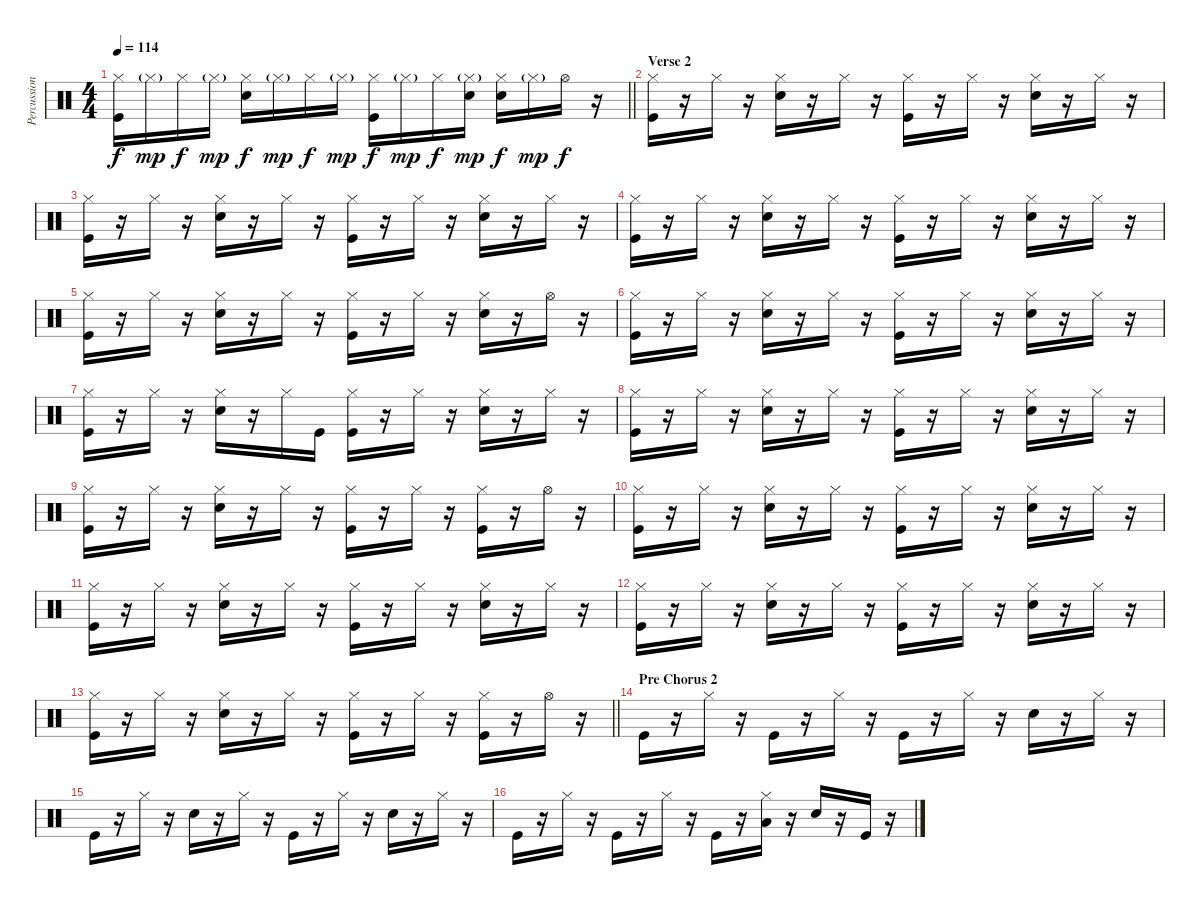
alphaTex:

\track ("Percussion" "Percussion") {instrument percussion bank 177}
\staff {score}
\articulation defaults
\ts (4 4)
\tempo 114
\clef neutral
\barLineRight lightlight
\ks c
("Hi-Hat (closed)" "Kick (hit)").16{dy f} "Hi-Hat (closed)"{g}.16{dy mp} "Hi-Hat (closed)".16{dy f} "Hi-Hat (closed)"{g}.16{dy mp} ("Hi-Hat (closed)" "Snare (hit) 2").16{dy f} "Hi-Hat (closed)"{g}.16{dy mp} "Hi-Hat (closed)".16{dy f} "Hi-Hat (closed)"{g}.16{dy mp} ("Hi-Hat (closed)" "Kick (hit)").16{dy f} "Hi-Hat (closed)"{g}.16{dy mp} "Hi-Hat (closed)".16{dy f} ("Hi-Hat (closed)"{g} "Snare (hit) 2").16{dy mp} ("Hi-Hat (closed)" "Snare (hit) 2").16{dy f} "Hi-Hat (closed)"{g}.16{dy mp} "Hi-Hat (open)".16{dy f} r.16 |
\section ("" "Verse 2")
("Hi-Hat (closed)" "Kick (hit)").16 r.16 "Hi-Hat (closed)".16 r.16 ("Hi-Hat (closed)" "Snare (hit) 2").16 r.16 "Hi-Hat (closed)".16 r.16 ("Hi-Hat (closed)" "Kick (hit)").16 r.16 "Hi-Hat (closed)".16 r.16 ("Hi-Hat (closed)" "Snare (hit) 2").16 r.16 "Hi-Hat (closed)".16 r.16 |
("Hi-Hat (closed)" "Kick (hit)").16 r.16 "Hi-Hat (closed)".16 r.16 ("Hi-Hat (closed)" "Snare (hit) 2").16 r.16 "Hi-Hat (closed)".16 r.16 ("Hi-Hat (closed)" "Kick (hit)").16 r.16 "Hi-Hat (closed)".16 r.16 ("Hi-Hat (closed)" "Snare (hit) 2").16 r.16 "Hi-Hat (closed)".16 r.16 |
("Hi-Hat (closed)" "Kick (hit)").16 r.16 "Hi-Hat (closed)".16 r.16 ("Hi-Hat (closed)" "Snare (hit) 2").16 r.16 "Hi-Hat (closed)".16 r.16 ("Hi-Hat (closed)" "Kick (hit)").16 r.16 "Hi-Hat (closed)".16 r.16 ("Hi-Hat (closed)" "Snare (hit) 2").16 r.16 "Hi-Hat (closed)".16 r.16 |
("Hi-Hat (closed)" "Kick (hit)").16 r.16 "Hi-Hat (closed)".16 r.16 ("Hi-Hat (closed)" "Snare (hit) 2").16 r.16 "Hi-Hat (closed)".16 r.16 ("Hi-Hat (closed)" "Kick (hit)").16 r.16 "Hi-Hat (closed)".16 r.16 ("Hi-Hat (closed)" "Snare (hit) 2").16 r.16 "Hi-Hat (open)".16 r.16 |
("Hi-Hat (closed)" "Kick (hit)").16 r.16 "Hi-Hat (closed)".16 r.16 ("Hi-Hat (closed)" "Snare (hit) 2").16 r.16 "Hi-Hat (closed)".16 r.16 ("Hi-Hat (closed)" "Kick (hit)").16 r.16 "Hi-Hat (closed)".16 r.16 ("Hi-Hat (closed)" "Snare (hit) 2").16 r.16 "Hi-Hat (closed)".16 r.16 |
("Hi-Hat (closed)" "Kick (hit)").16 r.16 "Hi-Hat (closed)".16 r.16 ("Hi-Hat (closed)" "Snare (hit) 2").16 r.16 "Hi-Hat (closed)".16 "Kick (hit)".16 ("Hi-Hat (closed)" "Kick (hit)").16 r.16 "Hi-Hat (closed)".16 r.16 ("Hi-Hat (closed)" "Snare (hit) 2").16 r.16 "Hi-Hat (closed)".16 r.16 |
("Hi-Hat (closed)" "Kick (hit)").16 r.16 "Hi-Hat (closed)".16 r.16 ("Hi-Hat (closed)" "Snare (hit) 2").16 r.16 "Hi-Hat (closed)".16 r.16 ("Hi-Hat (closed)" "Kick (hit)").16 r.16 "Hi-Hat (closed)".16 r.16 ("Hi-Hat (closed)" "Snare (hit) 2").16 r.16 "Hi-Hat (closed)".16 r.16 |
("Hi-Hat (closed)" "Kick (hit)").16 r.16 "Hi-Hat (closed)".16 r.16 ("Hi-Hat (closed)" "Snare (hit) 2").16 r.16 "Hi-Hat (closed)".16 r.16 ("Hi-Hat (closed)" "Kick (hit)").16 r.16 "Hi-Hat (closed)".16 r.16 ("Hi-Hat (closed)" "Kick (hit)").16 r.16 "Hi-Hat (open)".16 r.16 |
("Hi-Hat (closed)" "Kick (hit)").16 r.16 "Hi-Hat (closed)".16 r.16 ("Hi-Hat (closed)" "Snare (hit) 2").16 r.16 "Hi-Hat (closed)".16 r.16 ("Hi-Hat (closed)" "Kick (hit)").16 r.16 "Hi-Hat (closed)".16 r.16 ("Hi-Hat (closed)" "Snare (hit) 2").16 r.16 "Hi-Hat (closed)".16 r.16 |
("Hi-Hat (closed)" "Kick (hit)").16 r.16 "Hi-Hat (closed)".16 r.16 ("Hi-Hat (closed)" "Snare (hit) 2").16 r.16 "Hi-Hat (closed)".16 r.16 ("Hi-Hat (closed)" "Kick (hit)").16 r.16 "Hi-Hat (closed)".16 r.16 ("Hi-Hat (closed)" "Snare (hit) 2").16 r.16 "Hi-Hat (closed)".16 r.16 |
("Hi-Hat (closed)" "Kick (hit)").16 r.16 "Hi-Hat (closed)".16 r.16 ("Hi-Hat (closed)" "Snare (hit) 2").16 r.16 "Hi-Hat (closed)".16 r.16 ("Hi-Hat (closed)" "Kick (hit)").16 r.16 "Hi-Hat (closed)".16 r.16 ("Hi-Hat (closed)" "Snare (hit) 2").16 r.16 "Hi-Hat (closed)".16 r.16 |
\barLineRight lightlight
("Hi-Hat (closed)" "Kick (hit)").16 r.16 "Hi-Hat (closed)".16 r.16 ("Hi-Hat (closed)" "Snare (hit) 2").16 r.16 "Hi-Hat (closed)".16 r.16 ("Hi-Hat (closed)" "Kick (hit)").16 r.16 "Hi-Hat (closed)".16 r.16 ("Hi-Hat (closed)" "Kick (hit)").16 r.16 "Hi-Hat (open)".16 r.16 |
\section ("" "Pre Chorus 2")
"Kick (hit)".16 r.16 "Hi-Hat (closed)".16 r.16 "Kick (hit)".16 r.16 "Hi-Hat (closed)".16 r.16 "Kick (hit)".16 r.16 "Hi-Hat (closed)".16 r.16 "Snare (hit) 2".16 r.16 "Hi-Hat (closed)".16 r.16 |
"Kick (hit)".16 r.16 "Hi-Hat (closed)".16 r.16 "Snare (hit) 2".16 r.16 "Hi-Hat (closed)".16 r.16 "Kick (hit)".16 r.16 "Hi-Hat (closed)".16 r.16 "Snare (hit) 2".16 r.16 "Hi-Hat (closed)".16 r.16 |
"Kick (hit)".16 r.16 "Hi-Hat (closed)".16 r.16 "Kick (hit)".16 r.16 "Hi-Hat (closed)".16 r.16 "Kick (hit)".16 r.16 ("Hi-Hat (closed)" "Low Tom (hit)").16 r.16 "Snare (hit) 2".16 r.16 "Kick (hit)".16 r.16
